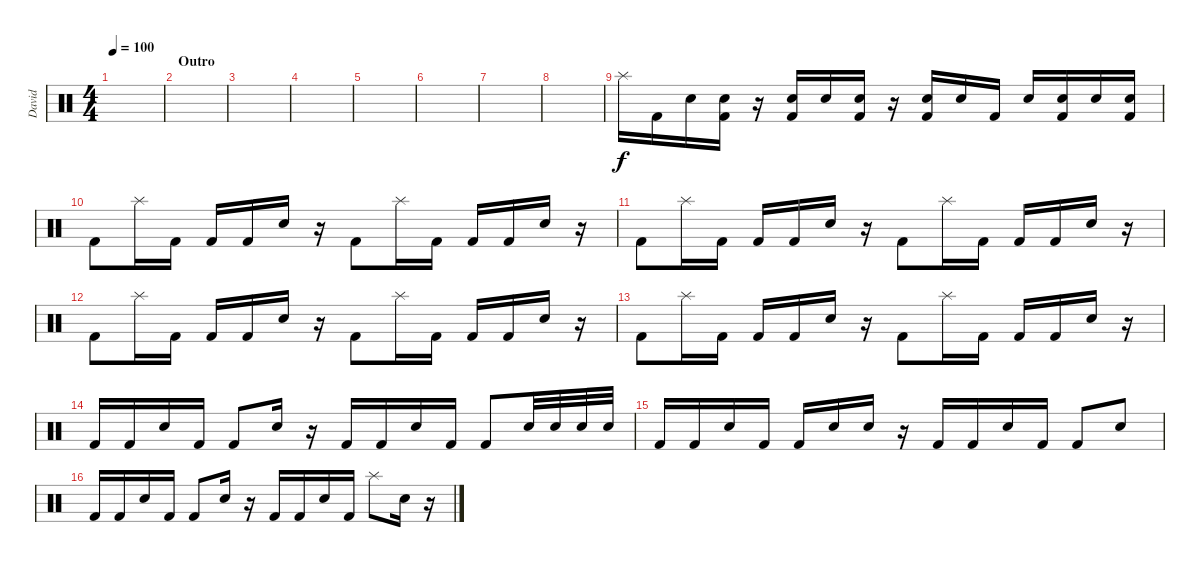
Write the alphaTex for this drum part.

\track ("David" "David") {instrument percussion}
\staff {score}
\articulation defaults
\ts (4 4)
\tempo 100
\clef neutral
\ks c
|
\section ("" "Outro")
|
|
|
|
|
|
|
"Splash (hit)".16 "Kick (hit) 2".16 "Electric Snare (hit)".16 ("Electric Snare (hit)" "Kick (hit) 2").16 r.16 ("Electric Snare (hit)" "Kick (hit) 2").16 "Electric Snare (hit)".16 ("Electric Snare (hit)" "Kick (hit) 2").16 r.16 ("Electric Snare (hit)" "Kick (hit) 2").16 "Electric Snare (hit)".16 "Kick (hit) 2".16 "Electric Snare (hit)".16 ("Electric Snare (hit)" "Kick (hit) 2").16 "Electric Snare (hit)".16 ("Electric Snare (hit)" "Kick (hit) 2").16 |
"Kick (hit) 2".8 "Splash (hit)".16 "Kick (hit) 2".16 "Kick (hit) 2".16 "Kick (hit) 2".16 "Electric Snare (hit)".16 r.16 "Kick (hit) 2".8 "Splash (hit)".16 "Kick (hit) 2".16 "Kick (hit) 2".16 "Kick (hit) 2".16 "Electric Snare (hit)".16 r.16 |
"Kick (hit) 2".8 "Splash (hit)".16 "Kick (hit) 2".16 "Kick (hit) 2".16 "Kick (hit) 2".16 "Electric Snare (hit)".16 r.16 "Kick (hit) 2".8 "Splash (hit)".16 "Kick (hit) 2".16 "Kick (hit) 2".16 "Kick (hit) 2".16 "Electric Snare (hit)".16 r.16 |
"Kick (hit) 2".8 "Splash (hit)".16 "Kick (hit) 2".16 "Kick (hit) 2".16 "Kick (hit) 2".16 "Electric Snare (hit)".16 r.16 "Kick (hit) 2".8 "Splash (hit)".16 "Kick (hit) 2".16 "Kick (hit) 2".16 "Kick (hit) 2".16 "Electric Snare (hit)".16 r.16 |
"Kick (hit) 2".8 "Splash (hit)".16 "Kick (hit) 2".16 "Kick (hit) 2".16 "Kick (hit) 2".16 "Electric Snare (hit)".16 r.16 "Kick (hit) 2".8 "Splash (hit)".16 "Kick (hit) 2".16 "Kick (hit) 2".16 "Kick (hit) 2".16 "Electric Snare (hit)".16 r.16 |
"Kick (hit) 2".16 "Kick (hit) 2".16 "Electric Snare (hit)".16 "Kick (hit) 2".16 "Kick (hit) 2".8 "Electric Snare (hit)".16 r.16 "Kick (hit) 2".16 "Kick (hit) 2".16 "Electric Snare (hit)".16 "Kick (hit) 2".16 "Kick (hit) 2".8 "Electric Snare (hit)".32 "Electric Snare (hit)".32 "Electric Snare (hit)".32 "Electric Snare (hit)".32 |
"Kick (hit) 2".16 "Kick (hit) 2".16 "Electric Snare (hit)".16 "Kick (hit) 2".16 "Kick (hit) 2".16 "Electric Snare (hit)".16 "Electric Snare (hit)".16 r.16 "Kick (hit) 2".16 "Kick (hit) 2".16 "Electric Snare (hit)".16 "Kick (hit) 2".16 "Kick (hit) 2".8 "Electric Snare (hit)".8 |
"Kick (hit) 2".16 "Kick (hit) 2".16 "Electric Snare (hit)".16 "Kick (hit) 2".16 "Kick (hit) 2".8 "Electric Snare (hit)".16 r.16 "Kick (hit) 2".16 "Kick (hit) 2".16 "Electric Snare (hit)".16 "Kick (hit) 2".16 "Splash (hit)".8 "Electric Snare (hit)".16 r.16
